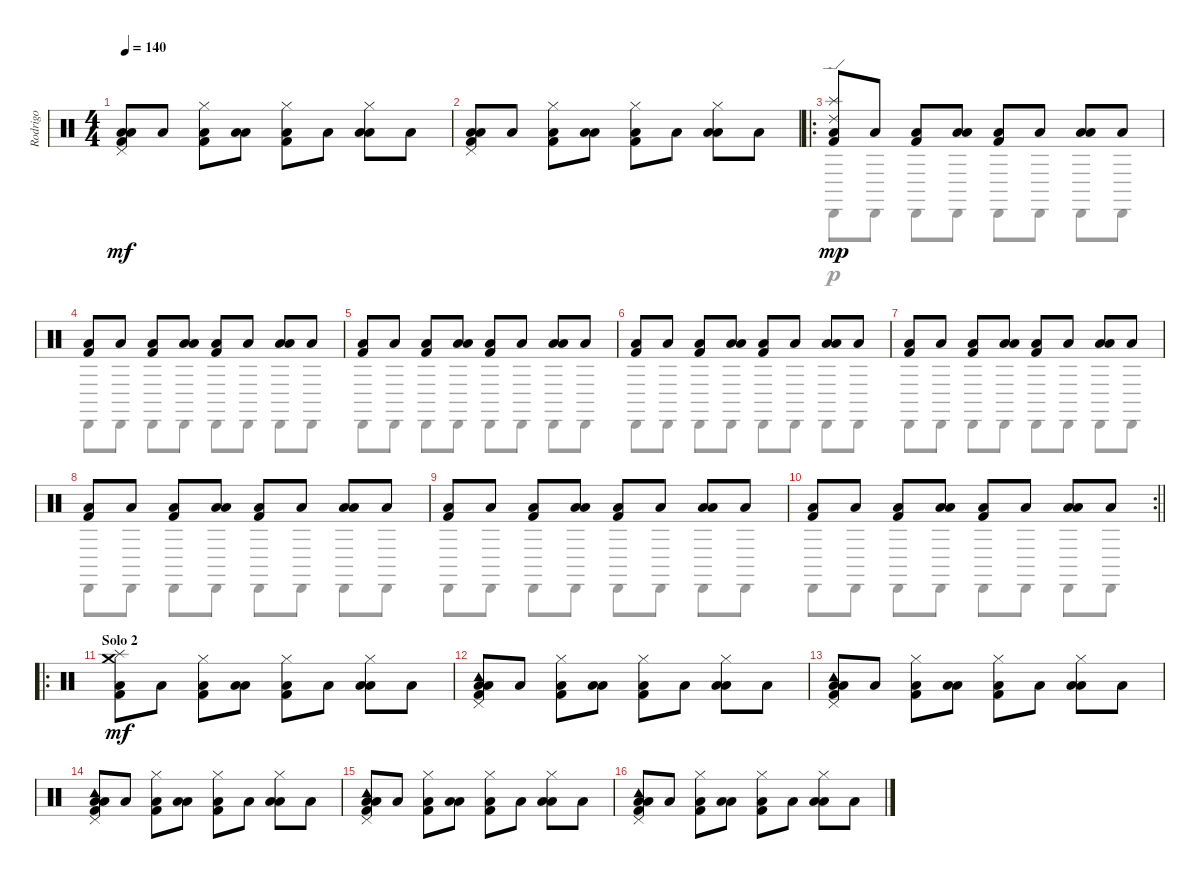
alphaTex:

\track ("Rodrigo" "Rodrigo") {instrument percussion}
\staff {score}
\articulation defaults
\voice
\ts (4 4)
\tempo 140
\clef neutral
\ks c
("Pedal Hi-Hat (hit)" "Low Floor Tom (hit)" "Low Floor Tom (hit)" "Kick (hit) 2").8{dy mf} "Low Floor Tom (hit)".8 ("Hi-Hat (closed)" "Low Floor Tom (hit)" "Kick (hit) 2").8 ("Low Floor Tom (hit)" "Low Floor Tom (hit)").8 ("Hi-Hat (closed)" "Low Floor Tom (hit)" "Kick (hit) 2").8 "Low Floor Tom (hit)".8 ("Hi-Hat (closed)" "Low Floor Tom (hit)" "Low Floor Tom (hit)").8 "Low Floor Tom (hit)".8 |
("Pedal Hi-Hat (hit)" "Low Floor Tom (hit)" "Low Floor Tom (hit)" "Kick (hit) 2").8 "Low Floor Tom (hit)".8 ("Hi-Hat (closed)" "Low Floor Tom (hit)" "Kick (hit) 2").8 ("Low Floor Tom (hit)" "Low Floor Tom (hit)").8 ("Hi-Hat (closed)" "Low Floor Tom (hit)" "Kick (hit) 2").8 "Low Floor Tom (hit)".8 ("Hi-Hat (closed)" "Low Floor Tom (hit)" "Low Floor Tom (hit)").8 "Low Floor Tom (hit)".8 |
\ro
("Splash (hit)" "Ride (edge) 2" "Low Floor Tom (hit)" "Kick (hit) 2").8{dy mp} "Low Floor Tom (hit)".8 ("Low Floor Tom (hit)" "Kick (hit) 2").8 ("Low Floor Tom (hit)" "Low Floor Tom (hit)").8 ("Low Floor Tom (hit)" "Kick (hit) 2").8 "Low Floor Tom (hit)".8 ("Low Floor Tom (hit)" "Low Floor Tom (hit)").8 "Low Floor Tom (hit)".8 |
("Low Floor Tom (hit)" "Kick (hit) 2").8 "Low Floor Tom (hit)".8 ("Low Floor Tom (hit)" "Kick (hit) 2").8 ("Low Floor Tom (hit)" "Low Floor Tom (hit)").8 ("Low Floor Tom (hit)" "Kick (hit) 2").8 "Low Floor Tom (hit)".8 ("Low Floor Tom (hit)" "Low Floor Tom (hit)").8 "Low Floor Tom (hit)".8 |
("Low Floor Tom (hit)" "Kick (hit) 2").8 "Low Floor Tom (hit)".8 ("Low Floor Tom (hit)" "Kick (hit) 2").8 ("Low Floor Tom (hit)" "Low Floor Tom (hit)").8 ("Low Floor Tom (hit)" "Kick (hit) 2").8 "Low Floor Tom (hit)".8 ("Low Floor Tom (hit)" "Low Floor Tom (hit)").8 "Low Floor Tom (hit)".8 |
("Low Floor Tom (hit)" "Kick (hit) 2").8 "Low Floor Tom (hit)".8 ("Low Floor Tom (hit)" "Kick (hit) 2").8 ("Low Floor Tom (hit)" "Low Floor Tom (hit)").8 ("Low Floor Tom (hit)" "Kick (hit) 2").8 "Low Floor Tom (hit)".8 ("Low Floor Tom (hit)" "Low Floor Tom (hit)").8 "Low Floor Tom (hit)".8 |
("Low Floor Tom (hit)" "Kick (hit) 2").8 "Low Floor Tom (hit)".8 ("Low Floor Tom (hit)" "Kick (hit) 2").8 ("Low Floor Tom (hit)" "Low Floor Tom (hit)").8 ("Low Floor Tom (hit)" "Kick (hit) 2").8 "Low Floor Tom (hit)".8 ("Low Floor Tom (hit)" "Low Floor Tom (hit)").8 "Low Floor Tom (hit)".8 |
("Low Floor Tom (hit)" "Kick (hit) 2").8 "Low Floor Tom (hit)".8 ("Low Floor Tom (hit)" "Kick (hit) 2").8 ("Low Floor Tom (hit)" "Low Floor Tom (hit)").8 ("Low Floor Tom (hit)" "Kick (hit) 2").8 "Low Floor Tom (hit)".8 ("Low Floor Tom (hit)" "Low Floor Tom (hit)").8 "Low Floor Tom (hit)".8 |
("Low Floor Tom (hit)" "Kick (hit) 2").8 "Low Floor Tom (hit)".8 ("Low Floor Tom (hit)" "Kick (hit) 2").8 ("Low Floor Tom (hit)" "Low Floor Tom (hit)").8 ("Low Floor Tom (hit)" "Kick (hit) 2").8 "Low Floor Tom (hit)".8 ("Low Floor Tom (hit)" "Low Floor Tom (hit)").8 "Low Floor Tom (hit)".8 |
\rc 2
\barLineRight lightlight
("Low Floor Tom (hit)" "Kick (hit) 2").8 "Low Floor Tom (hit)".8 ("Low Floor Tom (hit)" "Kick (hit) 2").8 ("Low Floor Tom (hit)" "Low Floor Tom (hit)").8 ("Low Floor Tom (hit)" "Kick (hit) 2").8 "Low Floor Tom (hit)".8 ("Low Floor Tom (hit)" "Low Floor Tom (hit)").8 "Low Floor Tom (hit)".8 |
\ro
\section ("" "Solo 2")
("Splash (hit)" "Crash medium (hit)" "Low Floor Tom (hit)" "Kick (hit) 2").8{dy mf} "Low Floor Tom (hit)".8 ("Hi-Hat (closed)" "Low Floor Tom (hit)" "Kick (hit) 2").8 ("Low Floor Tom (hit)" "Low Floor Tom (hit)").8 ("Hi-Hat (closed)" "Low Floor Tom (hit)" "Kick (hit) 2").8 "Low Floor Tom (hit)".8 ("Hi-Hat (closed)" "Low Floor Tom (hit)" "Low Floor Tom (hit)").8 "Low Floor Tom (hit)".8 |
("Tambourine (hit)" "Pedal Hi-Hat (hit)" "Low Floor Tom (hit)" "Low Floor Tom (hit)" "Kick (hit) 2").8 "Low Floor Tom (hit)".8 ("Hi-Hat (closed)" "Low Floor Tom (hit)" "Kick (hit) 2").8 ("Low Floor Tom (hit)" "Low Floor Tom (hit)").8 ("Hi-Hat (closed)" "Low Floor Tom (hit)" "Kick (hit) 2").8 "Low Floor Tom (hit)".8 ("Hi-Hat (closed)" "Low Floor Tom (hit)" "Low Floor Tom (hit)").8 "Low Floor Tom (hit)".8 |
("Tambourine (hit)" "Pedal Hi-Hat (hit)" "Low Floor Tom (hit)" "Low Floor Tom (hit)" "Kick (hit) 2").8 "Low Floor Tom (hit)".8 ("Hi-Hat (closed)" "Low Floor Tom (hit)" "Kick (hit) 2").8 ("Low Floor Tom (hit)" "Low Floor Tom (hit)").8 ("Hi-Hat (closed)" "Low Floor Tom (hit)" "Kick (hit) 2").8 "Low Floor Tom (hit)".8 ("Hi-Hat (closed)" "Low Floor Tom (hit)" "Low Floor Tom (hit)").8 "Low Floor Tom (hit)".8 |
("Tambourine (hit)" "Pedal Hi-Hat (hit)" "Low Floor Tom (hit)" "Low Floor Tom (hit)" "Kick (hit) 2").8 "Low Floor Tom (hit)".8 ("Hi-Hat (closed)" "Low Floor Tom (hit)" "Kick (hit) 2").8 ("Low Floor Tom (hit)" "Low Floor Tom (hit)").8 ("Hi-Hat (closed)" "Low Floor Tom (hit)" "Kick (hit) 2").8 "Low Floor Tom (hit)".8 ("Hi-Hat (closed)" "Low Floor Tom (hit)" "Low Floor Tom (hit)").8 "Low Floor Tom (hit)".8 |
("Tambourine (hit)" "Pedal Hi-Hat (hit)" "Low Floor Tom (hit)" "Low Floor Tom (hit)" "Kick (hit) 2").8 "Low Floor Tom (hit)".8 ("Hi-Hat (closed)" "Low Floor Tom (hit)" "Kick (hit) 2").8 ("Low Floor Tom (hit)" "Low Floor Tom (hit)").8 ("Hi-Hat (closed)" "Low Floor Tom (hit)" "Kick (hit) 2").8 "Low Floor Tom (hit)".8 ("Hi-Hat (closed)" "Low Floor Tom (hit)" "Low Floor Tom (hit)").8 "Low Floor Tom (hit)".8 |
("Tambourine (hit)" "Pedal Hi-Hat (hit)" "Low Floor Tom (hit)" "Low Floor Tom (hit)" "Kick (hit) 2").8 "Low Floor Tom (hit)".8 ("Hi-Hat (closed)" "Low Floor Tom (hit)" "Kick (hit) 2").8 ("Low Floor Tom (hit)" "Low Floor Tom (hit)").8 ("Hi-Hat (closed)" "Low Floor Tom (hit)" "Kick (hit) 2").8 "Low Floor Tom (hit)".8 ("Hi-Hat (closed)" "Low Floor Tom (hit)" "Low Floor Tom (hit)").8 "Low Floor Tom (hit)".8
\voice
\clef neutral
\ottava regular
\simile none
\ks c
|
|
"Cabasa (hit)".8{dy p} "Cabasa (hit)".8 "Cabasa (hit)".8 "Cabasa (hit)".8 "Cabasa (hit)".8 "Cabasa (hit)".8 "Cabasa (hit)".8 "Cabasa (hit)".8 |
"Cabasa (hit)".8 "Cabasa (hit)".8 "Cabasa (hit)".8 "Cabasa (hit)".8 "Cabasa (hit)".8 "Cabasa (hit)".8 "Cabasa (hit)".8 "Cabasa (hit)".8 |
"Cabasa (hit)".8 "Cabasa (hit)".8 "Cabasa (hit)".8 "Cabasa (hit)".8 "Cabasa (hit)".8 "Cabasa (hit)".8 "Cabasa (hit)".8 "Cabasa (hit)".8 |
"Cabasa (hit)".8 "Cabasa (hit)".8 "Cabasa (hit)".8 "Cabasa (hit)".8 "Cabasa (hit)".8 "Cabasa (hit)".8 "Cabasa (hit)".8 "Cabasa (hit)".8 |
"Cabasa (hit)".8 "Cabasa (hit)".8 "Cabasa (hit)".8 "Cabasa (hit)".8 "Cabasa (hit)".8 "Cabasa (hit)".8 "Cabasa (hit)".8 "Cabasa (hit)".8 |
"Cabasa (hit)".8 "Cabasa (hit)".8 "Cabasa (hit)".8 "Cabasa (hit)".8 "Cabasa (hit)".8 "Cabasa (hit)".8 "Cabasa (hit)".8 "Cabasa (hit)".8 |
"Cabasa (hit)".8 "Cabasa (hit)".8 "Cabasa (hit)".8 "Cabasa (hit)".8 "Cabasa (hit)".8 "Cabasa (hit)".8 "Cabasa (hit)".8 "Cabasa (hit)".8 |
\barLineRight lightlight "Cabasa (hit)".8 "Cabasa (hit)".8 "Cabasa (hit)".8 "Cabasa (hit)".8 "Cabasa (hit)".8 "Cabasa (hit)".8 "Cabasa (hit)".8 "Cabasa (hit)".8
|
|
|
|
|
|
